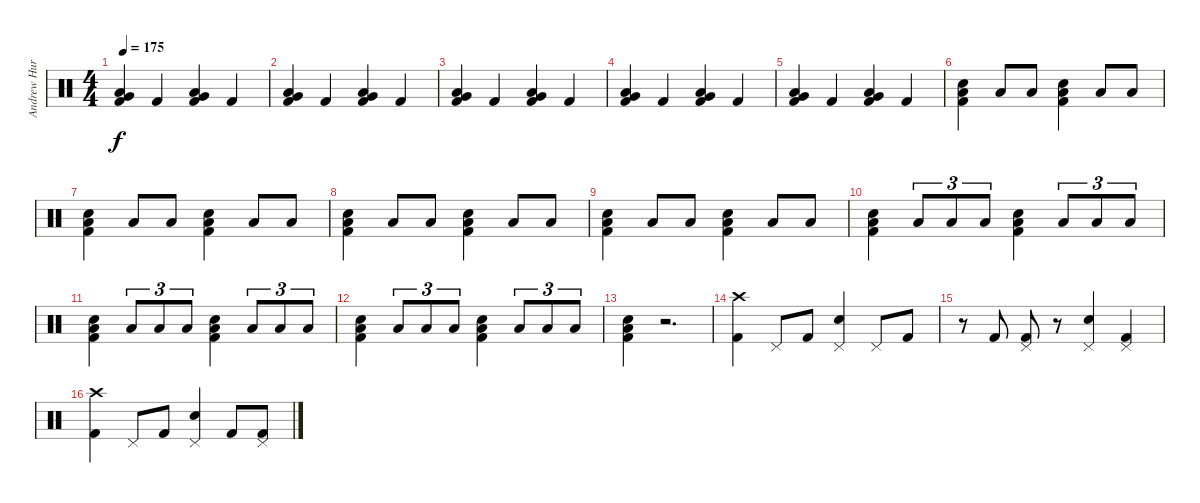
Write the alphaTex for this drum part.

\track ("Andrew Hurley (Drums)" "Andrew Hur") {instrument percussion}
\staff {score}
\articulation defaults
\ts (4 4)
\tempo 175
\clef neutral
\ks c
("Very Low Tom (hit)" "Low Floor Tom (hit)" "Kick (hit) 2").4{dy f} "Kick (hit) 2".4 ("Very Low Tom (hit)" "Low Floor Tom (hit)" "Kick (hit) 2").4 "Kick (hit) 2".4 |
("Very Low Tom (hit)" "Low Floor Tom (hit)" "Kick (hit) 2").4 "Kick (hit) 2".4 ("Very Low Tom (hit)" "Low Floor Tom (hit)" "Kick (hit) 2").4 "Kick (hit) 2".4 |
("Very Low Tom (hit)" "Low Floor Tom (hit)" "Kick (hit) 2").4 "Kick (hit) 2".4 ("Very Low Tom (hit)" "Low Floor Tom (hit)" "Kick (hit) 2").4 "Kick (hit) 2".4 |
("Very Low Tom (hit)" "Low Floor Tom (hit)" "Kick (hit) 2").4 "Kick (hit) 2".4 ("Very Low Tom (hit)" "Low Floor Tom (hit)" "Kick (hit) 2").4 "Kick (hit) 2".4 |
("Very Low Tom (hit)" "Low Floor Tom (hit)" "Kick (hit) 2").4 "Kick (hit) 2".4 ("Very Low Tom (hit)" "Low Floor Tom (hit)" "Kick (hit) 2").4 "Kick (hit) 2".4 |
("Snare (hit) 2" "Low Floor Tom (hit)" "Kick (hit) 2").4 "Low Floor Tom (hit)".8 "Low Floor Tom (hit)".8 ("Snare (hit) 2" "Low Floor Tom (hit)" "Kick (hit) 2").4 "Low Floor Tom (hit)".8 "Low Floor Tom (hit)".8 |
("Snare (hit) 2" "Low Floor Tom (hit)" "Kick (hit) 2").4 "Low Floor Tom (hit)".8 "Low Floor Tom (hit)".8 ("Snare (hit) 2" "Low Floor Tom (hit)" "Kick (hit) 2").4 "Low Floor Tom (hit)".8 "Low Floor Tom (hit)".8 |
("Snare (hit) 2" "Low Floor Tom (hit)" "Kick (hit) 2").4 "Low Floor Tom (hit)".8 "Low Floor Tom (hit)".8 ("Snare (hit) 2" "Low Floor Tom (hit)" "Kick (hit) 2").4 "Low Floor Tom (hit)".8 "Low Floor Tom (hit)".8 |
("Snare (hit) 2" "Low Floor Tom (hit)" "Kick (hit) 2").4 "Low Floor Tom (hit)".8 "Low Floor Tom (hit)".8 ("Snare (hit) 2" "Low Floor Tom (hit)" "Kick (hit) 2").4 "Low Floor Tom (hit)".8 "Low Floor Tom (hit)".8 |
("Snare (hit) 2" "Low Floor Tom (hit)" "Kick (hit) 2").4 "Low Floor Tom (hit)".8{tu (3 2)} "Low Floor Tom (hit)".8{tu (3 2)} "Low Floor Tom (hit)".8{tu (3 2)} ("Snare (hit) 2" "Low Floor Tom (hit)" "Kick (hit) 2").4 "Low Floor Tom (hit)".8{tu (3 2)} "Low Floor Tom (hit)".8{tu (3 2)} "Low Floor Tom (hit)".8{tu (3 2)} |
("Snare (hit) 2" "Low Floor Tom (hit)" "Kick (hit) 2").4 "Low Floor Tom (hit)".8{tu (3 2)} "Low Floor Tom (hit)".8{tu (3 2)} "Low Floor Tom (hit)".8{tu (3 2)} ("Snare (hit) 2" "Low Floor Tom (hit)" "Kick (hit) 2").4 "Low Floor Tom (hit)".8{tu (3 2)} "Low Floor Tom (hit)".8{tu (3 2)} "Low Floor Tom (hit)".8{tu (3 2)} |
("Snare (hit) 2" "Low Floor Tom (hit)" "Kick (hit) 2").4 "Low Floor Tom (hit)".8{tu (3 2)} "Low Floor Tom (hit)".8{tu (3 2)} "Low Floor Tom (hit)".8{tu (3 2)} ("Snare (hit) 2" "Low Floor Tom (hit)" "Kick (hit) 2").4 "Low Floor Tom (hit)".8{tu (3 2)} "Low Floor Tom (hit)".8{tu (3 2)} "Low Floor Tom (hit)".8{tu (3 2)} |
("Snare (hit) 2" "Low Floor Tom (hit)" "Kick (hit) 2").4 r.2{d} |
("Crash high (hit)" "Kick (hit) 2").4 "Pedal Hi-Hat (hit)".8 "Kick (hit) 2".8 ("Pedal Hi-Hat (hit)" "Snare (hit) 2").4 "Pedal Hi-Hat (hit)".8 "Kick (hit) 2".8 |
r.8 "Kick (hit) 2".8 ("Pedal Hi-Hat (hit)" "Kick (hit) 2").8 r.8 ("Pedal Hi-Hat (hit)" "Snare (hit) 2").4 ("Pedal Hi-Hat (hit)" "Kick (hit) 2").4 |
("Crash high (hit)" "Kick (hit) 2").4 "Pedal Hi-Hat (hit)".8 "Kick (hit) 2".8 ("Pedal Hi-Hat (hit)" "Snare (hit) 2").4 "Kick (hit) 2".8 ("Pedal Hi-Hat (hit)" "Kick (hit) 2").8
